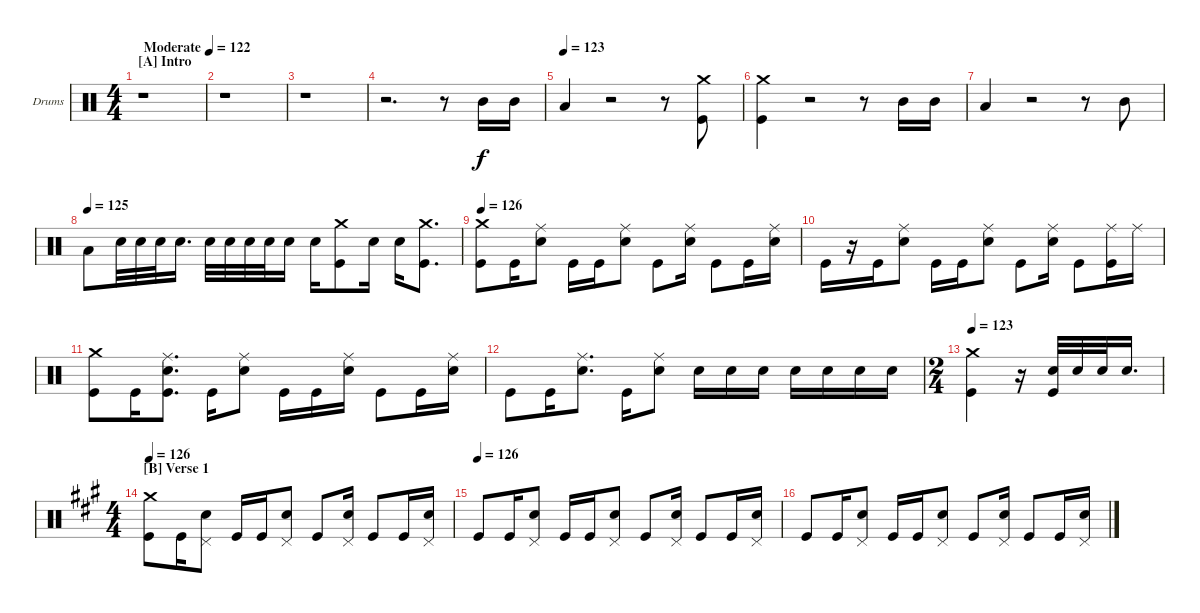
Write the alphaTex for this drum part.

\bracketExtendMode groupsimilarinstruments
\firstSystemTrackNameOrientation horizontal
\otherSystemsTrackNameOrientation horizontal
\track ("Vinny Appice" "Drums") {instrument percussion}
\staff {score}
\articulation defaults
\ts (4 4)
\beaming (8 2 2 2 2)
\section ("A" "Intro")
\tempo (122 "Moderate")
\clef neutral
\ks c
r.1{dy f} |
r.1 |
r.1 |
r.2{d} r.8 "Mid Tom (hit)".16 "Mid Tom (hit)".16 |
\tempo (123)
"Low Tom (hit)".4 r.2 r.8 ("Crash medium (hit)" "Kick (hit)").8 |
("Kick (hit)" "Crash medium (hit)").4 r.2 r.8 "Mid Tom (hit)".16 "Mid Tom (hit)".16 |
"Low Tom (hit)".4 r.2 r.8 "Mid Tom (hit)".8 |
\tempo (125)
"Low Tom (hit)".8 "Snare (hit) 2".32 "Snare (hit) 2".32 "Snare (hit) 2".32 "Snare (hit) 2".16{d} "Snare (hit) 2".32 "Snare (hit) 2".32 "Snare (hit) 2".32 "Snare (hit) 2".32 "Snare (hit) 2".16 "Snare (hit) 2".16 ("Kick (hit)" "Crash medium (hit)").8 "Snare (hit) 2".16 "Snare (hit) 2".16 ("Kick (hit)" "Crash medium (hit)").8{d} |
\tempo 126
("Crash medium (hit)" "Kick (hit)").8 "Kick (hit)".16 ("Ride (middle)" "Snare (hit) 2").8 "Kick (hit)".16 "Kick (hit)".16 ("Snare (hit) 2" "Ride (middle)").8 "Kick (hit)".8 ("Snare (hit) 2" "Ride (middle)").16 "Kick (hit)".8 "Kick (hit)".16 ("Snare (hit) 2" "Ride (middle)").16 |
"Kick (hit)".16 r.16 "Kick (hit)".16 ("Snare (hit) 2" "Ride (middle)").8 "Kick (hit)".16 "Kick (hit)".16 ("Snare (hit) 2" "Ride (middle)").8 "Kick (hit)".8 ("Snare (hit) 2" "Ride (middle)").16 "Kick (hit)".8 ("Ride (middle)" "Kick (hit)").16 "Ride (middle)".16 |
("Crash medium (hit)" "Kick (hit)").8 "Kick (hit)".16 ("Kick (hit)" "Snare (hit) 2" "Ride (middle)").8{d} "Kick (hit)".16 ("Snare (hit) 2" "Ride (middle)").8 "Kick (hit)".16 "Kick (hit)".16 ("Snare (hit) 2" "Ride (middle)").16 "Kick (hit)".8 "Kick (hit)".16 ("Snare (hit) 2" "Ride (middle)").16 |
"Kick (hit)".8 "Kick (hit)".16 ("Snare (hit) 2" "Ride (middle)").8{d} "Kick (hit)".16 ("Ride (middle)" "Snare (hit) 2").8 "Snare (hit) 2".16 "Snare (hit) 2".16 "Snare (hit) 2".16 "Snare (hit) 2".16 "Snare (hit) 2".16 "Snare (hit) 2".16 "Snare (hit) 2".16 |
\ts (2 4)
\tempo 123
("Crash medium (hit)" "Kick (hit)").4 r.16 ("Kick (hit)" "Snare (hit) 2").32 "Snare (hit) 2".32 "Snare (hit) 2".32 "Snare (hit) 2".16{d} |
\ts (4 4)
\section ("B" "Verse 1")
\tempo 126
\ks f#minor
("Crash medium (hit)" "Kick (hit)").8 "Kick (hit)".16 ("Pedal Hi-Hat (hit)" "Snare (hit) 2").8 "Kick (hit)".16 "Kick (hit)".16 ("Pedal Hi-Hat (hit)" "Snare (hit) 2").8 "Kick (hit)".8 ("Snare (hit) 2" "Pedal Hi-Hat (hit)").16 "Kick (hit)".8 "Kick (hit)".16 ("Snare (hit) 2" "Pedal Hi-Hat (hit)").16 |
\tempo (126)
"Kick (hit)".8 "Kick (hit)".16 ("Snare (hit) 2" "Pedal Hi-Hat (hit)").8 "Kick (hit)".16 "Kick (hit)".16 ("Snare (hit) 2" "Pedal Hi-Hat (hit)").8 "Kick (hit)".8 ("Snare (hit) 2" "Pedal Hi-Hat (hit)").16 "Kick (hit)".8 "Kick (hit)".16 ("Snare (hit) 2" "Pedal Hi-Hat (hit)").16 |
"Kick (hit)".8 "Kick (hit)".16 ("Snare (hit) 2" "Pedal Hi-Hat (hit)").8 "Kick (hit)".16 "Kick (hit)".16 ("Snare (hit) 2" "Pedal Hi-Hat (hit)").8 "Kick (hit)".8 ("Snare (hit) 2" "Pedal Hi-Hat (hit)").16 "Kick (hit)".8 "Kick (hit)".16 ("Snare (hit) 2" "Pedal Hi-Hat (hit)").16
